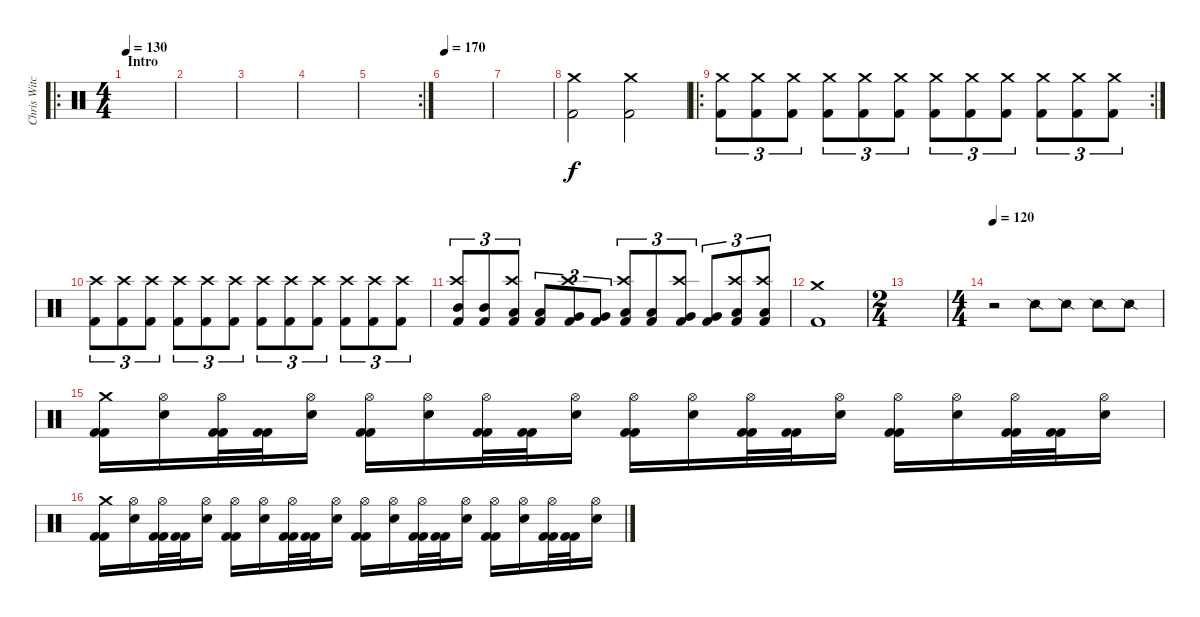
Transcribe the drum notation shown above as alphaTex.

\track ("Chris Witchhunter" "Chris Witc") {instrument percussion}
\staff {score}
\articulation defaults
\ro
\ts (4 4)
\section ("" "Intro")
\tempo 130
\tempo 170
\tempo 130
\clef neutral
\ks c
|
|
|
|
\rc 2
|
\tempo 170
|
|
("Crash medium (hit)" "Kick (hit) 2").2 ("Crash medium (hit)" "Kick (hit) 2").2 |
\ro
\rc 2
("Kick (hit) 2" "Crash medium (hit)").8{tu (3 2)} ("Kick (hit) 2" "Crash medium (hit)").8{tu (3 2)} ("Kick (hit) 2" "Crash medium (hit)").8{tu (3 2)} ("Kick (hit) 2" "Crash medium (hit)").8{tu (3 2)} ("Kick (hit) 2" "Crash medium (hit)").8{tu (3 2)} ("Kick (hit) 2" "Crash medium (hit)").8{tu (3 2)} ("Kick (hit) 2" "Crash medium (hit)").8{tu (3 2)} ("Kick (hit) 2" "Crash medium (hit)").8{tu (3 2)} ("Kick (hit) 2" "Crash medium (hit)").8{tu (3 2)} ("Kick (hit) 2" "Crash medium (hit)").8{tu (3 2)} ("Kick (hit) 2" "Crash medium (hit)").8{tu (3 2)} ("Kick (hit) 2" "Crash medium (hit)").8{tu (3 2)} |
("Kick (hit) 2" "Crash high (hit)").8{tu (3 2)} ("Kick (hit) 2" "Crash high (hit)").8{tu (3 2)} ("Kick (hit) 2" "Crash high (hit)").8{tu (3 2)} ("Kick (hit) 2" "Crash high (hit)").8{tu (3 2)} ("Kick (hit) 2" "Crash high (hit)").8{tu (3 2)} ("Kick (hit) 2" "Crash high (hit)").8{tu (3 2)} ("Kick (hit) 2" "Crash high (hit)").8{tu (3 2)} ("Kick (hit) 2" "Crash high (hit)").8{tu (3 2)} ("Kick (hit) 2" "Crash high (hit)").8{tu (3 2)} ("Kick (hit) 2" "Crash high (hit)").8{tu (3 2)} ("Kick (hit) 2" "Crash high (hit)").8{tu (3 2)} ("Kick (hit) 2" "Crash high (hit)").8{tu (3 2)} |
("Kick (hit) 2" "Mid Tom (hit)" "Crash high (hit)").8{tu (3 2)} ("Kick (hit) 2" "Mid Tom (hit)").8{tu (3 2)} ("Kick (hit) 2" "Low Tom (hit)" "Crash high (hit)").8{tu (3 2)} ("Kick (hit) 2" "Low Tom (hit)").8{tu (3 2)} ("Kick (hit) 2" "Very Low Tom (hit)" "Crash high (hit)").8{tu (3 2)} ("Kick (hit) 2" "Very Low Tom (hit)").8{tu (3 2)} ("Kick (hit) 2" "Low Tom (hit)" "Crash high (hit)").8{tu (3 2)} ("Kick (hit) 2" "Low Tom (hit)").8{tu (3 2)} ("Kick (hit) 2" "Very Low Tom (hit)" "Crash high (hit)").8{tu (3 2)} ("Kick (hit) 2" "Very Low Tom (hit)").8{tu (3 2)} ("Kick (hit) 2" "Low Floor Tom (hit)" "Crash high (hit)").8{tu (3 2)} ("Kick (hit) 2" "Low Floor Tom (hit)" "Crash high (hit)").8{tu (3 2)} |
("Crash medium (hit)" "Kick (hit) 2").1 |
\ts (2 4)
|
\ts (4 4)
\tempo 120
r.2 "Snare (side stick) 2".8 "Snare (side stick) 2".8 "Snare (side stick) 2".8 "Snare (side stick) 2".8 |
("Crash medium (hit)" "Kick (hit) 2" "Kick (hit) 2").16 ("Hi-Hat (open)" "Snare (hit) 2").16 ("Hi-Hat (open)" "Kick (hit) 2" "Kick (hit) 2").32 ("Kick (hit) 2" "Kick (hit) 2").32 ("Hi-Hat (open)" "Snare (hit) 2").16 ("Hi-Hat (open)" "Kick (hit) 2" "Kick (hit) 2").16 ("Hi-Hat (open)" "Snare (hit) 2").16 ("Hi-Hat (open)" "Kick (hit) 2" "Kick (hit) 2").32 ("Kick (hit) 2" "Kick (hit) 2").32 ("Hi-Hat (open)" "Snare (hit) 2").16 ("Hi-Hat (open)" "Kick (hit) 2" "Kick (hit) 2").16 ("Hi-Hat (open)" "Snare (hit) 2").16 ("Hi-Hat (open)" "Kick (hit) 2" "Kick (hit) 2").32 ("Kick (hit) 2" "Kick (hit) 2").32 ("Hi-Hat (open)" "Snare (hit) 2").16 ("Hi-Hat (open)" "Kick (hit) 2" "Kick (hit) 2").16 ("Hi-Hat (open)" "Snare (hit) 2").16 ("Hi-Hat (open)" "Kick (hit) 2" "Kick (hit) 2").32 ("Kick (hit) 2" "Kick (hit) 2").32 ("Hi-Hat (open)" "Snare (hit) 2").16 |
("Crash medium (hit)" "Kick (hit) 2" "Kick (hit) 2").16 ("Hi-Hat (open)" "Snare (hit) 2").16 ("Hi-Hat (open)" "Kick (hit) 2" "Kick (hit) 2").32 ("Kick (hit) 2" "Kick (hit) 2").32 ("Hi-Hat (open)" "Snare (hit) 2").16 ("Hi-Hat (open)" "Kick (hit) 2" "Kick (hit) 2").16 ("Hi-Hat (open)" "Snare (hit) 2").16 ("Hi-Hat (open)" "Kick (hit) 2" "Kick (hit) 2").32 ("Kick (hit) 2" "Kick (hit) 2").32 ("Hi-Hat (open)" "Snare (hit) 2").16 ("Hi-Hat (open)" "Kick (hit) 2" "Kick (hit) 2").16 ("Hi-Hat (open)" "Snare (hit) 2").16 ("Hi-Hat (open)" "Kick (hit) 2" "Kick (hit) 2").32 ("Kick (hit) 2" "Kick (hit) 2").32 ("Hi-Hat (open)" "Snare (hit) 2").16 ("Hi-Hat (open)" "Kick (hit) 2" "Kick (hit) 2").16 ("Hi-Hat (open)" "Snare (hit) 2").16 ("Hi-Hat (open)" "Kick (hit) 2" "Kick (hit) 2").32 ("Kick (hit) 2" "Kick (hit) 2").32 ("Hi-Hat (open)" "Snare (hit) 2").16
